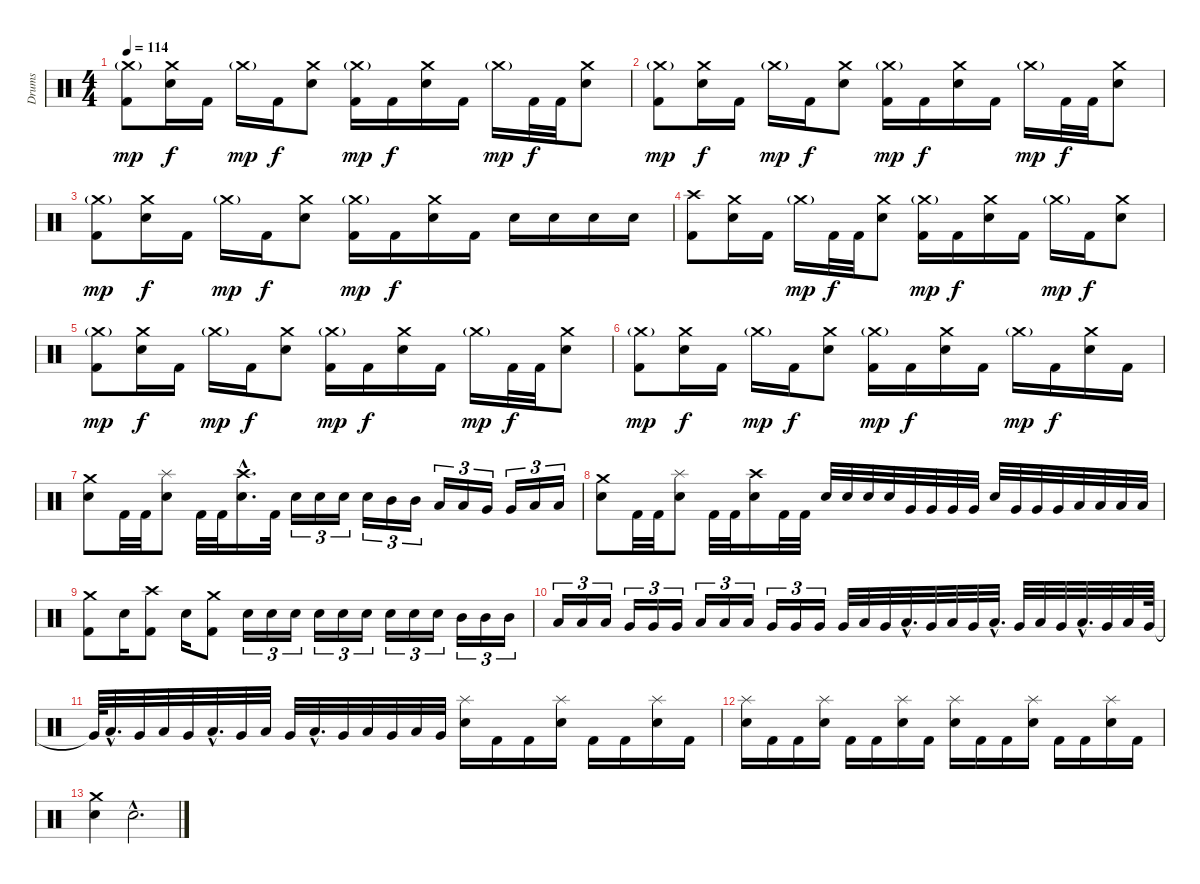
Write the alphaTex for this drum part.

\track ("Drums" "Drums") {instrument percussion}
\staff {score}
\articulation defaults
\ts (4 4)
\tempo 114
\clef neutral
\ks c
("Crash medium (hit)"{g} "Kick (hit) 2").8{dy mp} ("Crash medium (hit)" "Snare (hit) 2").16{dy f} "Kick (hit) 2".16 "Crash medium (hit)"{g}.16{dy mp} "Kick (hit) 2".16{dy f} ("Crash medium (hit)" "Snare (hit) 2").8 ("Crash medium (hit)"{g} "Kick (hit) 2").16{dy mp} "Kick (hit) 2".16{dy f} ("Crash medium (hit)" "Snare (hit) 2").16 "Kick (hit) 2".16 "Crash medium (hit)"{g}.16{dy mp} "Kick (hit) 2".32{dy f} "Kick (hit) 2".32 ("Crash medium (hit)" "Snare (hit) 2").8 |
("Crash medium (hit)"{g} "Kick (hit) 2").8{dy mp} ("Crash medium (hit)" "Snare (hit) 2").16{dy f} "Kick (hit) 2".16 "Crash medium (hit)"{g}.16{dy mp} "Kick (hit) 2".16{dy f} ("Crash medium (hit)" "Snare (hit) 2").8 ("Crash medium (hit)"{g} "Kick (hit) 2").16{dy mp} "Kick (hit) 2".16{dy f} ("Crash medium (hit)" "Snare (hit) 2").16 "Kick (hit) 2".16 "Crash medium (hit)"{g}.16{dy mp} "Kick (hit) 2".32{dy f} "Kick (hit) 2".32 ("Crash medium (hit)" "Snare (hit) 2").8 |
("Crash medium (hit)"{g} "Kick (hit) 2").8{dy mp} ("Crash medium (hit)" "Snare (hit) 2").16{dy f} "Kick (hit) 2".16 "Crash medium (hit)"{g}.16{dy mp} "Kick (hit) 2".16{dy f} ("Crash medium (hit)" "Snare (hit) 2").8 ("Crash medium (hit)"{g} "Kick (hit) 2").16{dy mp} "Kick (hit) 2".16{dy f} ("Crash medium (hit)" "Snare (hit) 2").16 "Kick (hit) 2".16 "Snare (hit) 2".16 "Snare (hit) 2".16 "Snare (hit) 2".16 "Snare (hit) 2".16 |
("Crash high (hit)" "Kick (hit) 2").8 ("Crash medium (hit)" "Snare (hit) 2").16 "Kick (hit) 2".16 "Crash medium (hit)"{g}.16{dy mp} "Kick (hit) 2".32{dy f} "Kick (hit) 2".32 ("Crash medium (hit)" "Snare (hit) 2").8 ("Crash medium (hit)"{g} "Kick (hit) 2").16{dy mp} "Kick (hit) 2".16{dy f} ("Crash medium (hit)" "Snare (hit) 2").16 "Kick (hit) 2".16 "Crash medium (hit)"{g}.16{dy mp} "Kick (hit) 2".16{dy f} ("Crash medium (hit)" "Snare (hit) 2").8 |
("Crash medium (hit)"{g} "Kick (hit) 2").8{dy mp} ("Crash medium (hit)" "Snare (hit) 2").16{dy f} "Kick (hit) 2".16 "Crash medium (hit)"{g}.16{dy mp} "Kick (hit) 2".16{dy f} ("Crash medium (hit)" "Snare (hit) 2").8 ("Crash medium (hit)"{g} "Kick (hit) 2").16{dy mp} "Kick (hit) 2".16{dy f} ("Crash medium (hit)" "Snare (hit) 2").16 "Kick (hit) 2".16 "Crash medium (hit)"{g}.16{dy mp} "Kick (hit) 2".32{dy f} "Kick (hit) 2".32 ("Crash medium (hit)" "Snare (hit) 2").8 |
("Crash medium (hit)"{g} "Kick (hit) 2").8{dy mp} ("Crash medium (hit)" "Snare (hit) 2").16{dy f} "Kick (hit) 2".16 "Crash medium (hit)"{g}.16{dy mp} "Kick (hit) 2".16{dy f} ("Crash medium (hit)" "Snare (hit) 2").8 ("Crash medium (hit)"{g} "Kick (hit) 2").16{dy mp} "Kick (hit) 2".16{dy f} ("Crash medium (hit)" "Snare (hit) 2").16 "Kick (hit) 2".16 "Crash medium (hit)"{g}.16{dy mp} "Kick (hit) 2".16{dy f} ("Crash medium (hit)" "Snare (hit) 2").16 "Kick (hit) 2".16 |
("Crash medium (hit)" "Snare (hit) 2").8 "Kick (hit) 2".32 "Kick (hit) 2".32 ("Splash (hit)" "Snare (hit) 2").8 "Kick (hit) 2".32 "Kick (hit) 2".32 ("Crash high (hit)"{hac} "Snare (hit) 2"{hac}).16{d} "Kick (hit) 2".32 "Snare (hit) 2".16{tu (3 2)} "Snare (hit) 2".16{tu (3 2)} "Snare (hit) 2".16{tu (3 2)} "Snare (hit) 2".16{tu (3 2)} "Mid Tom (hit)".16{tu (3 2)} "Mid Tom (hit)".16{tu (3 2)} "Low Tom (hit)".16{tu (3 2)} "Low Tom (hit)".16{tu (3 2)} "Very Low Tom (hit)".16{tu (3 2)} "Very Low Tom (hit)".16{tu (3 2)} "Low Floor Tom (hit)".16{tu (3 2)} "Low Floor Tom (hit)".16{tu (3 2)} |
("Crash medium (hit)" "Snare (hit) 2").8 "Kick (hit) 2".32 "Kick (hit) 2".32 ("Splash (hit)" "Snare (hit) 2").8 "Kick (hit) 2".32 "Kick (hit) 2".32 ("Crash high (hit)" "Snare (hit) 2").16 "Kick (hit) 2".32 "Kick (hit) 2".32 "Snare (hit) 2".32 "Snare (hit) 2".32 "Snare (hit) 2".32 "Snare (hit) 2".32 "Very Low Tom (hit)".32 "Very Low Tom (hit)".32 "Very Low Tom (hit)".32 "Very Low Tom (hit)".32 "Snare (hit) 2".32 "Very Low Tom (hit)".32 "Very Low Tom (hit)".32 "Very Low Tom (hit)".32 "Low Floor Tom (hit)".32 "Low Floor Tom (hit)".32 "Low Floor Tom (hit)".32 "Low Floor Tom (hit)".32 |
("Crash medium (hit)" "Kick (hit) 2").8 "Snare (hit) 2".16 ("Crash high (hit)" "Kick (hit) 2").8 "Snare (hit) 2".16 ("Crash medium (hit)" "Kick (hit) 2").8 "Snare (hit) 2".16{tu (3 2)} "Snare (hit) 2".16{tu (3 2)} "Snare (hit) 2".16{tu (3 2)} "Snare (hit) 2".16{tu (3 2)} "Snare (hit) 2".16{tu (3 2)} "Snare (hit) 2".16{tu (3 2)} "Snare (hit) 2".16{tu (3 2)} "Snare (hit) 2".16{tu (3 2)} "Snare (hit) 2".16{tu (3 2)} "Mid Tom (hit)".16{tu (3 2)} "Mid Tom (hit)".16{tu (3 2)} "Mid Tom (hit)".16{tu (3 2)} |
"Low Tom (hit)".16{tu (3 2)} "Low Tom (hit)".16{tu (3 2)} "Low Tom (hit)".16{tu (3 2)} "Very Low Tom (hit)".16{tu (3 2)} "Very Low Tom (hit)".16{tu (3 2)} "Very Low Tom (hit)".16{tu (3 2)} "Low Floor Tom (hit)".16{tu (3 2)} "Low Floor Tom (hit)".16{tu (3 2)} "Low Floor Tom (hit)".16{tu (3 2)} "Very Low Tom (hit)".16{tu (3 2)} "Very Low Tom (hit)".16{tu (3 2)} "Very Low Tom (hit)".16{tu (3 2)} "Very Low Tom (hit)".32 "Low Tom (hit)".32 "Very Low Tom (hit)".32 "Low Floor Tom (hit)"{hac}.32{d} "Very Low Tom (hit)".32 "Low Tom (hit)".32 "Very Low Tom (hit)".32 "Low Floor Tom (hit)"{hac}.32{d} "Very Low Tom (hit)".32 "Low Tom (hit)".32 "Very Low Tom (hit)".32 "Low Floor Tom (hit)"{hac}.32{d} "Very Low Tom (hit)".32 "Low Tom (hit)".32 "Very Low Tom (hit)".64 |
"Very Low Tom (hit)"{t}.64 "Low Floor Tom (hit)"{hac}.32{d} "Very Low Tom (hit)".32 "Low Tom (hit)".32 "Very Low Tom (hit)".32 "Low Floor Tom (hit)"{hac}.32{d} "Very Low Tom (hit)".32 "Low Tom (hit)".32 "Very Low Tom (hit)".32 "Low Floor Tom (hit)"{hac}.32{d} "Very Low Tom (hit)".32 "Low Tom (hit)".32 "Very Low Tom (hit)".32 "Low Floor Tom (hit)".32 "Very Low Tom (hit)".32 ("Splash (hit)" "Snare (hit) 2").16 "Kick (hit) 2".16 "Kick (hit) 2".16 ("Splash (hit)" "Snare (hit) 2").16 "Kick (hit) 2".16 "Kick (hit) 2".16 ("Splash (hit)" "Snare (hit) 2").16 "Kick (hit) 2".16 |
("Splash (hit)" "Snare (hit) 2").16 "Kick (hit) 2".16 "Kick (hit) 2".16 ("Splash (hit)" "Snare (hit) 2").16 "Kick (hit) 2".16 "Kick (hit) 2".16 ("Splash (hit)" "Snare (hit) 2").16 "Kick (hit) 2".16 ("Splash (hit)" "Snare (hit) 2").16 "Kick (hit) 2".16 "Kick (hit) 2".16 ("Splash (hit)" "Snare (hit) 2").16 "Kick (hit) 2".16 "Kick (hit) 2".16 ("Splash (hit)" "Snare (hit) 2").16 "Kick (hit) 2".16 |
("Crash medium (hit)" "Snare (hit) 2").4 "Snare (hit)"{hac x}.2{d volume 0}
